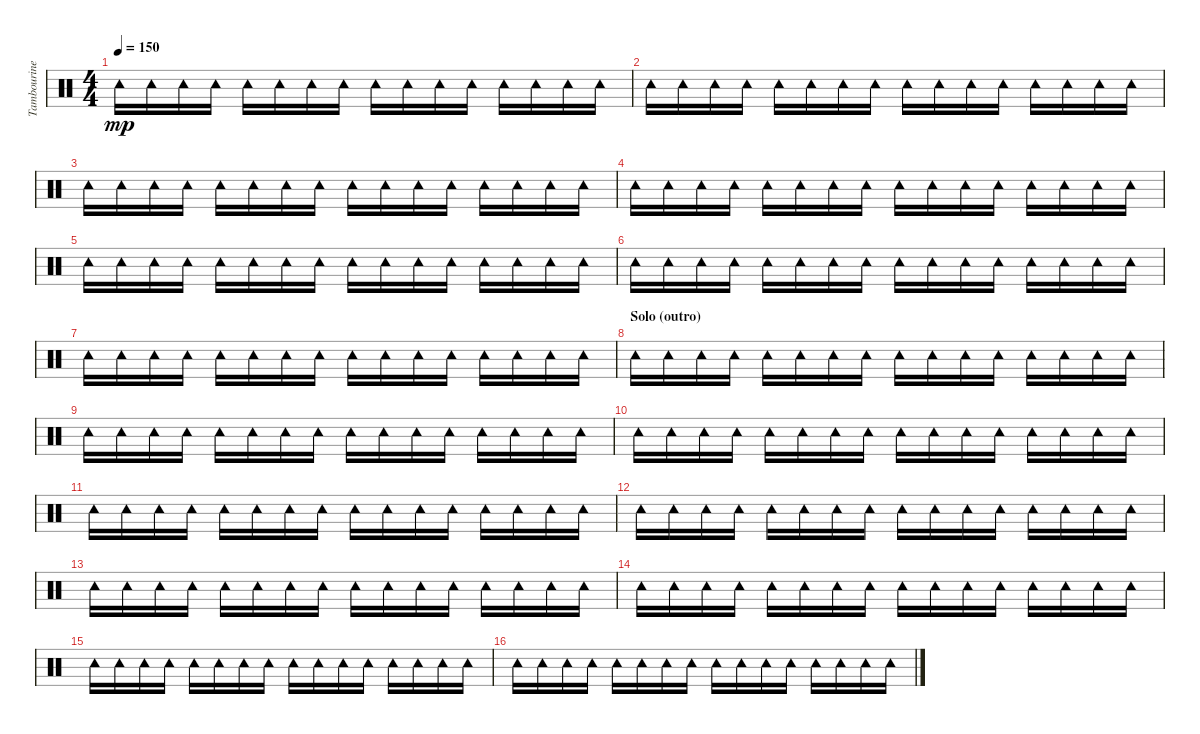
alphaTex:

\track ("Tambourine" "Tambourine") {instrument percussion}
\staff {score}
\articulation defaults
\ts (4 4)
\tempo 150
\clef neutral
\ks c "Tambourine (hit)".16{dy mp} "Tambourine (hit)".16 "Tambourine (hit)".16 "Tambourine (hit)".16 "Tambourine (hit)".16 "Tambourine (hit)".16 "Tambourine (hit)".16 "Tambourine (hit)".16 "Tambourine (hit)".16 "Tambourine (hit)".16 "Tambourine (hit)".16 "Tambourine (hit)".16 "Tambourine (hit)".16 "Tambourine (hit)".16 "Tambourine (hit)".16 "Tambourine (hit)".16
|
"Tambourine (hit)".16 "Tambourine (hit)".16 "Tambourine (hit)".16 "Tambourine (hit)".16 "Tambourine (hit)".16 "Tambourine (hit)".16 "Tambourine (hit)".16 "Tambourine (hit)".16 "Tambourine (hit)".16 "Tambourine (hit)".16 "Tambourine (hit)".16 "Tambourine (hit)".16 "Tambourine (hit)".16 "Tambourine (hit)".16 "Tambourine (hit)".16 "Tambourine (hit)".16 |
"Tambourine (hit)".16 "Tambourine (hit)".16 "Tambourine (hit)".16 "Tambourine (hit)".16 "Tambourine (hit)".16 "Tambourine (hit)".16 "Tambourine (hit)".16 "Tambourine (hit)".16 "Tambourine (hit)".16 "Tambourine (hit)".16 "Tambourine (hit)".16 "Tambourine (hit)".16 "Tambourine (hit)".16 "Tambourine (hit)".16 "Tambourine (hit)".16 "Tambourine (hit)".16 |
"Tambourine (hit)".16 "Tambourine (hit)".16 "Tambourine (hit)".16 "Tambourine (hit)".16 "Tambourine (hit)".16 "Tambourine (hit)".16 "Tambourine (hit)".16 "Tambourine (hit)".16 "Tambourine (hit)".16 "Tambourine (hit)".16 "Tambourine (hit)".16 "Tambourine (hit)".16 "Tambourine (hit)".16 "Tambourine (hit)".16 "Tambourine (hit)".16 "Tambourine (hit)".16 |
"Tambourine (hit)".16 "Tambourine (hit)".16 "Tambourine (hit)".16 "Tambourine (hit)".16 "Tambourine (hit)".16 "Tambourine (hit)".16 "Tambourine (hit)".16 "Tambourine (hit)".16 "Tambourine (hit)".16 "Tambourine (hit)".16 "Tambourine (hit)".16 "Tambourine (hit)".16 "Tambourine (hit)".16 "Tambourine (hit)".16 "Tambourine (hit)".16 "Tambourine (hit)".16 |
"Tambourine (hit)".16 "Tambourine (hit)".16 "Tambourine (hit)".16 "Tambourine (hit)".16 "Tambourine (hit)".16 "Tambourine (hit)".16 "Tambourine (hit)".16 "Tambourine (hit)".16 "Tambourine (hit)".16 "Tambourine (hit)".16 "Tambourine (hit)".16 "Tambourine (hit)".16 "Tambourine (hit)".16 "Tambourine (hit)".16 "Tambourine (hit)".16 "Tambourine (hit)".16 |
"Tambourine (hit)".16 "Tambourine (hit)".16 "Tambourine (hit)".16 "Tambourine (hit)".16 "Tambourine (hit)".16 "Tambourine (hit)".16 "Tambourine (hit)".16 "Tambourine (hit)".16 "Tambourine (hit)".16 "Tambourine (hit)".16 "Tambourine (hit)".16 "Tambourine (hit)".16 "Tambourine (hit)".16 "Tambourine (hit)".16 "Tambourine (hit)".16 "Tambourine (hit)".16 |
\section ("" "Solo (outro)")
"Tambourine (hit)".16 "Tambourine (hit)".16 "Tambourine (hit)".16 "Tambourine (hit)".16 "Tambourine (hit)".16 "Tambourine (hit)".16 "Tambourine (hit)".16 "Tambourine (hit)".16 "Tambourine (hit)".16 "Tambourine (hit)".16 "Tambourine (hit)".16 "Tambourine (hit)".16 "Tambourine (hit)".16 "Tambourine (hit)".16 "Tambourine (hit)".16 "Tambourine (hit)".16 |
"Tambourine (hit)".16 "Tambourine (hit)".16 "Tambourine (hit)".16 "Tambourine (hit)".16 "Tambourine (hit)".16 "Tambourine (hit)".16 "Tambourine (hit)".16 "Tambourine (hit)".16 "Tambourine (hit)".16 "Tambourine (hit)".16 "Tambourine (hit)".16 "Tambourine (hit)".16 "Tambourine (hit)".16 "Tambourine (hit)".16 "Tambourine (hit)".16 "Tambourine (hit)".16 |
"Tambourine (hit)".16 "Tambourine (hit)".16 "Tambourine (hit)".16 "Tambourine (hit)".16 "Tambourine (hit)".16 "Tambourine (hit)".16 "Tambourine (hit)".16 "Tambourine (hit)".16 "Tambourine (hit)".16 "Tambourine (hit)".16 "Tambourine (hit)".16 "Tambourine (hit)".16 "Tambourine (hit)".16 "Tambourine (hit)".16 "Tambourine (hit)".16 "Tambourine (hit)".16 |
"Tambourine (hit)".16 "Tambourine (hit)".16 "Tambourine (hit)".16 "Tambourine (hit)".16 "Tambourine (hit)".16 "Tambourine (hit)".16 "Tambourine (hit)".16 "Tambourine (hit)".16 "Tambourine (hit)".16 "Tambourine (hit)".16 "Tambourine (hit)".16 "Tambourine (hit)".16 "Tambourine (hit)".16 "Tambourine (hit)".16 "Tambourine (hit)".16 "Tambourine (hit)".16 |
"Tambourine (hit)".16 "Tambourine (hit)".16 "Tambourine (hit)".16 "Tambourine (hit)".16 "Tambourine (hit)".16 "Tambourine (hit)".16 "Tambourine (hit)".16 "Tambourine (hit)".16 "Tambourine (hit)".16 "Tambourine (hit)".16 "Tambourine (hit)".16 "Tambourine (hit)".16 "Tambourine (hit)".16 "Tambourine (hit)".16 "Tambourine (hit)".16 "Tambourine (hit)".16 |
"Tambourine (hit)".16 "Tambourine (hit)".16 "Tambourine (hit)".16 "Tambourine (hit)".16 "Tambourine (hit)".16 "Tambourine (hit)".16 "Tambourine (hit)".16 "Tambourine (hit)".16 "Tambourine (hit)".16 "Tambourine (hit)".16 "Tambourine (hit)".16 "Tambourine (hit)".16 "Tambourine (hit)".16 "Tambourine (hit)".16 "Tambourine (hit)".16 "Tambourine (hit)".16 |
"Tambourine (hit)".16 "Tambourine (hit)".16 "Tambourine (hit)".16 "Tambourine (hit)".16 "Tambourine (hit)".16 "Tambourine (hit)".16 "Tambourine (hit)".16 "Tambourine (hit)".16 "Tambourine (hit)".16 "Tambourine (hit)".16 "Tambourine (hit)".16 "Tambourine (hit)".16 "Tambourine (hit)".16 "Tambourine (hit)".16 "Tambourine (hit)".16 "Tambourine (hit)".16 |
"Tambourine (hit)".16 "Tambourine (hit)".16 "Tambourine (hit)".16 "Tambourine (hit)".16 "Tambourine (hit)".16 "Tambourine (hit)".16 "Tambourine (hit)".16 "Tambourine (hit)".16 "Tambourine (hit)".16 "Tambourine (hit)".16 "Tambourine (hit)".16 "Tambourine (hit)".16 "Tambourine (hit)".16 "Tambourine (hit)".16 "Tambourine (hit)".16 "Tambourine (hit)".16 |
"Tambourine (hit)".16 "Tambourine (hit)".16 "Tambourine (hit)".16 "Tambourine (hit)".16 "Tambourine (hit)".16 "Tambourine (hit)".16 "Tambourine (hit)".16 "Tambourine (hit)".16 "Tambourine (hit)".16 "Tambourine (hit)".16 "Tambourine (hit)".16 "Tambourine (hit)".16 "Tambourine (hit)".16 "Tambourine (hit)".16 "Tambourine (hit)".16 "Tambourine (hit)".16
